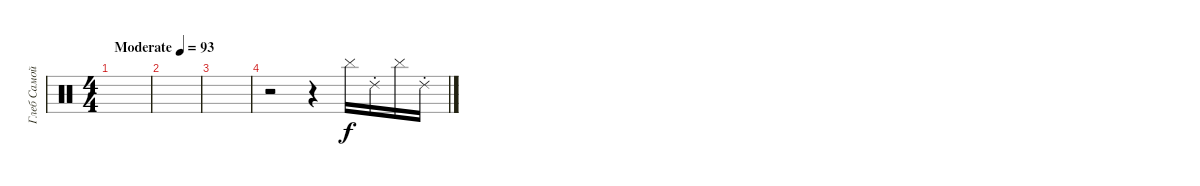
\track ("Глеб Самойлов (fx)" "Глеб Самой") {instrument percussion}
\staff {score}
\articulation defaults
\ts (4 4)
\tempo (93 "Moderate")
\clef neutral
\ks c
|
|
|
r.2 r.4 "Cymbal (hit)".16 "Ride (choke) 2".16 "Cymbal (hit)".16 "Ride (choke) 2".16
